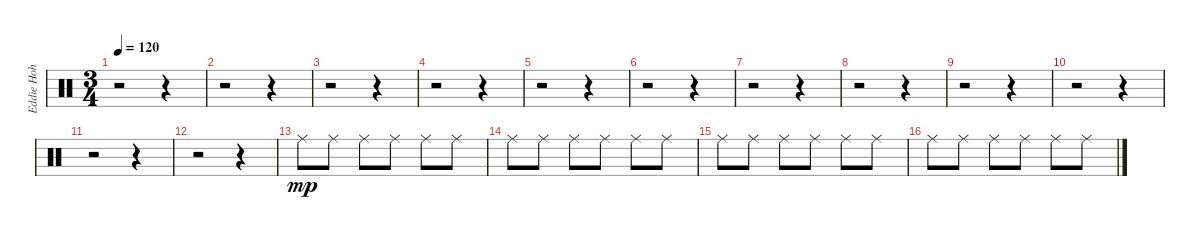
\track ("Eddie Hoh" "Eddie Hoh") {instrument percussion}
\staff {score}
\articulation defaults
\ts (3 4)
\tempo 120
\clef neutral
\ks c
r.2{dy mp} r.4 |
r.2 r.4 |
r.2 r.4 |
r.2 r.4 |
r.2 r.4 |
r.2 r.4 |
r.2 r.4 |
r.2 r.4 |
r.2 r.4 |
r.2 r.4 |
r.2 r.4 |
r.2 r.4 |
"Ride (middle)".8 "Ride (middle)".8 "Ride (middle)".8 "Ride (middle)".8 "Ride (middle)".8 "Ride (middle)".8 |
"Ride (middle)".8 "Ride (middle)".8 "Ride (middle)".8 "Ride (middle)".8 "Ride (middle)".8 "Ride (middle)".8 |
"Ride (middle)".8 "Ride (middle)".8 "Ride (middle)".8 "Ride (middle)".8 "Ride (middle)".8 "Ride (middle)".8 |
"Ride (middle)".8 "Ride (middle)".8 "Ride (middle)".8 "Ride (middle)".8 "Ride (middle)".8 "Ride (middle)".8
